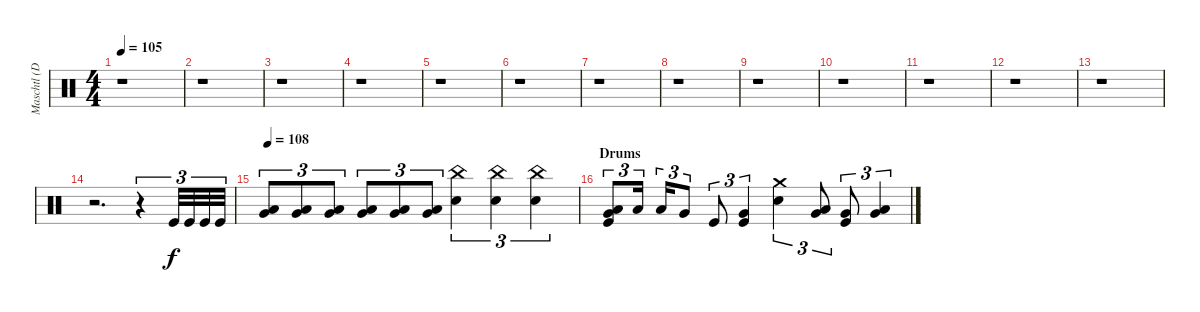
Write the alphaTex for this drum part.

\track ("Maschtl (Drums)" "Maschtl (D") {instrument percussion}
\staff {score}
\articulation defaults
\ts (4 4)
\tempo 105
\clef neutral
\ks c
r.1{dy f} |
r.1 |
r.1 |
r.1 |
r.1 |
r.1 |
r.1 |
r.1 |
r.1 |
r.1 |
r.1 |
r.1 |
r.1 |
r.2{d} r.4{tu (3 2)} "Kick (hit)".32{tu (3 2)} "Kick (hit)".32{tu (3 2)} "Kick (hit)".32{tu (3 2)} "Kick (hit)".32{tu (3 2)} |
\tempo 108
("Low Tom (hit)" "Very Low Tom (hit)").8{tu (3 2) bd 60} ("Low Tom (hit)" "Very Low Tom (hit)").8{tu (3 2) bd 60} ("Low Tom (hit)" "Very Low Tom (hit)").8{tu (3 2) bd 60} ("Low Tom (hit)" "Very Low Tom (hit)").8{tu (3 2) bd 60} ("Low Tom (hit)" "Very Low Tom (hit)").8{tu (3 2) bd 60} ("Low Tom (hit)" "Very Low Tom (hit)").8{tu (3 2) bd 60} ("China (hit)" "Electric Snare (hit)").4{tu (3 2)} ("China (hit)" "Electric Snare (hit)").4{tu (3 2)} ("China (hit)" "Electric Snare (hit)").4{tu (3 2)} |
\section ("" "Drums")
("Very Low Tom (hit)" "Low Tom (hit)" "Kick (hit)").8{tu (3 2) bd 60} "Low Tom (hit)".16{tu (3 2)} "Low Tom (hit)".16{tu (3 2)} "Very Low Tom (hit)".8{tu (3 2)} "Kick (hit)".8{tu (3 2)} ("Very Low Tom (hit)" "Kick (hit)").4{tu (3 2)} ("Crash medium (hit)" "Electric Snare (hit)").4{tu (3 2)} ("Low Tom (hit)" "Very Low Tom (hit)").8{tu (3 2) bd 60} ("Very Low Tom (hit)" "Kick (hit)").8{tu (3 2)} ("Low Tom (hit)" "Very Low Tom (hit)").4{tu (3 2) bd 60}
